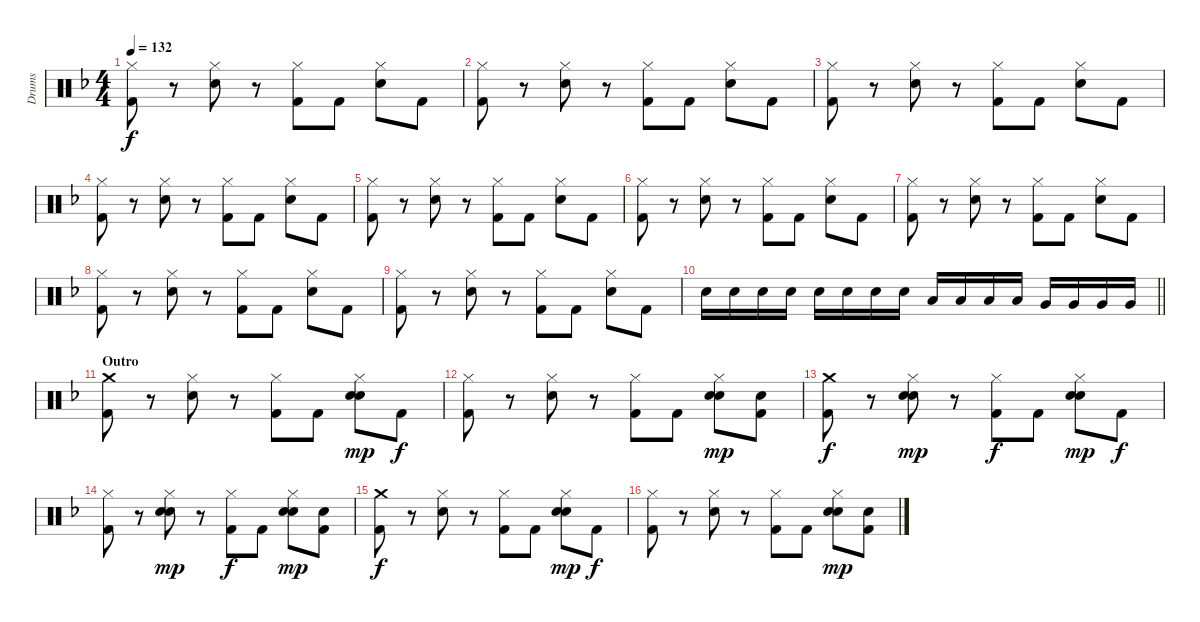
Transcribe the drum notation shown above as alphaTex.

\track ("Drums" "Drums") {instrument percussion}
\staff {score}
\articulation defaults
\ts (4 4)
\tempo 132
\clef neutral
\ks f
("Hi-Hat (closed)" "Kick (hit) 2").8{dy f} r.8 ("Hi-Hat (closed)" "Snare (hit) 2").8 r.8 ("Hi-Hat (closed)" "Kick (hit) 2").8 "Kick (hit) 2".8 ("Hi-Hat (closed)" "Snare (hit) 2").8 "Kick (hit) 2".8 |
("Hi-Hat (closed)" "Kick (hit) 2").8 r.8 ("Hi-Hat (closed)" "Snare (hit) 2").8 r.8 ("Hi-Hat (closed)" "Kick (hit) 2").8 "Kick (hit) 2".8 ("Hi-Hat (closed)" "Snare (hit) 2").8 "Kick (hit) 2".8 |
("Hi-Hat (closed)" "Kick (hit) 2").8 r.8 ("Hi-Hat (closed)" "Snare (hit) 2").8 r.8 ("Hi-Hat (closed)" "Kick (hit) 2").8 "Kick (hit) 2".8 ("Hi-Hat (closed)" "Snare (hit) 2").8 "Kick (hit) 2".8 |
("Hi-Hat (closed)" "Kick (hit) 2").8 r.8 ("Hi-Hat (closed)" "Snare (hit) 2").8 r.8 ("Hi-Hat (closed)" "Kick (hit) 2").8 "Kick (hit) 2".8 ("Hi-Hat (closed)" "Snare (hit) 2").8 "Kick (hit) 2".8 |
("Hi-Hat (closed)" "Kick (hit) 2").8 r.8 ("Hi-Hat (closed)" "Snare (hit) 2").8 r.8 ("Hi-Hat (closed)" "Kick (hit) 2").8 "Kick (hit) 2".8 ("Hi-Hat (closed)" "Snare (hit) 2").8 "Kick (hit) 2".8 |
("Hi-Hat (closed)" "Kick (hit) 2").8 r.8 ("Hi-Hat (closed)" "Snare (hit) 2").8 r.8 ("Hi-Hat (closed)" "Kick (hit) 2").8 "Kick (hit) 2".8 ("Hi-Hat (closed)" "Snare (hit) 2").8 "Kick (hit) 2".8 |
("Hi-Hat (closed)" "Kick (hit) 2").8 r.8 ("Hi-Hat (closed)" "Snare (hit) 2").8 r.8 ("Hi-Hat (closed)" "Kick (hit) 2").8 "Kick (hit) 2".8 ("Hi-Hat (closed)" "Snare (hit) 2").8 "Kick (hit) 2".8 |
("Hi-Hat (closed)" "Kick (hit) 2").8 r.8 ("Hi-Hat (closed)" "Snare (hit) 2").8 r.8 ("Hi-Hat (closed)" "Kick (hit) 2").8 "Kick (hit) 2".8 ("Hi-Hat (closed)" "Snare (hit) 2").8 "Kick (hit) 2".8 |
("Hi-Hat (closed)" "Kick (hit) 2").8 r.8 ("Hi-Hat (closed)" "Snare (hit) 2").8 r.8 ("Hi-Hat (closed)" "Kick (hit) 2").8 "Kick (hit) 2".8 ("Hi-Hat (closed)" "Snare (hit) 2").8 "Kick (hit) 2".8 |
\barLineRight lightlight "Snare (hit) 2".16 "Snare (hit) 2".16 "Snare (hit) 2".16 "Snare (hit) 2".16 "Snare (hit) 2".16 "Snare (hit) 2".16 "Snare (hit) 2".16 "Snare (hit) 2".16 "Low Tom (hit)".16 "Low Tom (hit)".16 "Low Tom (hit)".16 "Low Tom (hit)".16 "Very Low Tom (hit)".16 "Very Low Tom (hit)".16 "Very Low Tom (hit)".16 "Very Low Tom (hit)".16
|
\section ("" "Outro")
("Crash medium (hit)" "Kick (hit) 2").8 r.8 ("Hi-Hat (closed)" "Snare (hit) 2").8 r.8 ("Hi-Hat (closed)" "Kick (hit) 2").8 "Kick (hit) 2".8 ("Hi-Hat (closed)" "Hand Clap (hit)" "Snare (hit) 2").8{dy mp} "Kick (hit) 2".8{dy f} |
("Hi-Hat (closed)" "Kick (hit) 2").8 r.8 ("Hi-Hat (closed)" "Snare (hit) 2").8 r.8 ("Hi-Hat (closed)" "Kick (hit) 2").8 "Kick (hit) 2".8 ("Hi-Hat (closed)" "Hand Clap (hit)" "Snare (hit) 2").8{dy mp} ("Hand Clap (hit)" "Kick (hit) 2").8 |
("Crash medium (hit)" "Kick (hit) 2").8{dy f} r.8 ("Hi-Hat (closed)" "Hand Clap (hit)" "Snare (hit) 2").8{dy mp} r.8 ("Hi-Hat (closed)" "Kick (hit) 2").8{dy f} "Kick (hit) 2".8 ("Hi-Hat (closed)" "Hand Clap (hit)" "Snare (hit) 2").8{dy mp} "Kick (hit) 2".8{dy f} |
("Hi-Hat (closed)" "Kick (hit) 2").8 r.8 ("Hi-Hat (closed)" "Hand Clap (hit)" "Snare (hit) 2").8{dy mp} r.8 ("Hi-Hat (closed)" "Kick (hit) 2").8{dy f} "Kick (hit) 2".8 ("Hi-Hat (closed)" "Hand Clap (hit)" "Snare (hit) 2").8{dy mp} ("Hand Clap (hit)" "Kick (hit) 2").8 |
("Crash medium (hit)" "Kick (hit) 2").8{dy f} r.8 ("Hi-Hat (closed)" "Snare (hit) 2").8 r.8 ("Hi-Hat (closed)" "Kick (hit) 2").8 "Kick (hit) 2".8 ("Hi-Hat (closed)" "Hand Clap (hit)" "Snare (hit) 2").8{dy mp} "Kick (hit) 2".8{dy f} |
("Hi-Hat (closed)" "Kick (hit) 2").8 r.8 ("Hi-Hat (closed)" "Snare (hit) 2").8 r.8 ("Hi-Hat (closed)" "Kick (hit) 2").8 "Kick (hit) 2".8 ("Hi-Hat (closed)" "Hand Clap (hit)" "Snare (hit) 2").8{dy mp} ("Hand Clap (hit)" "Kick (hit) 2").8
